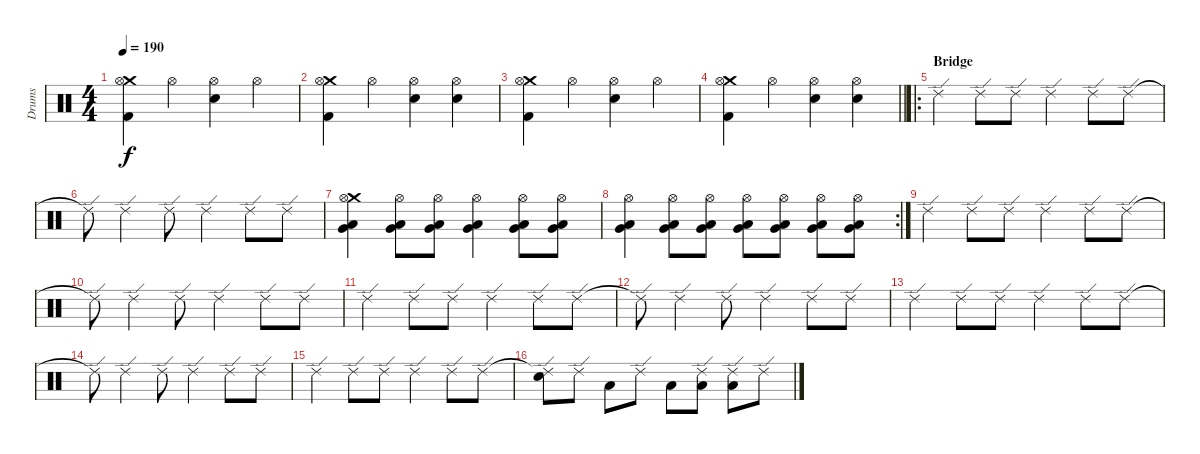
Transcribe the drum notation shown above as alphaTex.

\track ("Drums" "Drums") {instrument percussion}
\staff {score}
\articulation defaults
\ts (4 4)
\tempo 190
\clef neutral
\ks c
("Crash medium (hit)" "Hi-Hat (open)" "Kick (hit) 2").4{dy f} "Hi-Hat (open)".4 ("Hi-Hat (open)" "Electric Snare (hit)").4 "Hi-Hat (open)".4 |
("Crash medium (hit)" "Hi-Hat (open)" "Kick (hit) 2").4 "Hi-Hat (open)".4 ("Hi-Hat (open)" "Electric Snare (hit)").4 ("Hi-Hat (open)" "Electric Snare (hit)").4 |
("Crash medium (hit)" "Hi-Hat (open)" "Kick (hit) 2").4 "Hi-Hat (open)".4 ("Hi-Hat (open)" "Electric Snare (hit)").4 "Hi-Hat (open)".4 |
\barLineRight lightlight
("Crash medium (hit)" "Hi-Hat (open)" "Kick (hit) 2").4 "Hi-Hat (open)".4 ("Hi-Hat (open)" "Electric Snare (hit)").4 ("Hi-Hat (open)" "Electric Snare (hit)").4 |
\ro
\section ("" "Bridge")
"Ride (edge) 2".4 "Ride (edge) 2".8 "Ride (edge) 2".8 "Ride (edge) 2".4 "Ride (edge) 2".8 "Ride (edge) 2".8 |
"Ride (edge) 2"{t}.8 "Ride (edge) 2".4 "Ride (edge) 2".8 "Ride (edge) 2".4 "Ride (edge) 2".8 "Ride (edge) 2".8 |
("Crash medium (hit)" "Hi-Hat (open)" "Low Tom (hit)" "Very Low Tom (hit)").4 ("Hi-Hat (open)" "Low Tom (hit)" "Very Low Tom (hit)").8 ("Hi-Hat (open)" "Low Tom (hit)" "Very Low Tom (hit)").8 ("Hi-Hat (open)" "Low Tom (hit)" "Very Low Tom (hit)").4 ("Hi-Hat (open)" "Low Tom (hit)" "Very Low Tom (hit)").8 ("Hi-Hat (open)" "Low Tom (hit)" "Very Low Tom (hit)").8 |
\rc 2
("Hi-Hat (open)" "Low Tom (hit)" "Very Low Tom (hit)").4 ("Hi-Hat (open)" "Low Tom (hit)" "Very Low Tom (hit)").8 ("Hi-Hat (open)" "Low Tom (hit)" "Very Low Tom (hit)").8 ("Hi-Hat (open)" "Low Tom (hit)" "Very Low Tom (hit)").8 ("Hi-Hat (open)" "Low Tom (hit)" "Very Low Tom (hit)").8 ("Hi-Hat (open)" "Low Tom (hit)" "Very Low Tom (hit)").8 ("Hi-Hat (open)" "Low Tom (hit)" "Very Low Tom (hit)").8 |
"Ride (edge) 2".4 "Ride (edge) 2".8 "Ride (edge) 2".8 "Ride (edge) 2".4 "Ride (edge) 2".8 "Ride (edge) 2".8 |
"Ride (edge) 2"{t}.8 "Ride (edge) 2".4 "Ride (edge) 2".8 "Ride (edge) 2".4 "Ride (edge) 2".8 "Ride (edge) 2".8 |
"Ride (edge) 2".4 "Ride (edge) 2".8 "Ride (edge) 2".8 "Ride (edge) 2".4 "Ride (edge) 2".8 "Ride (edge) 2".8 |
"Ride (edge) 2"{t}.8 "Ride (edge) 2".4 "Ride (edge) 2".8 "Ride (edge) 2".4 "Ride (edge) 2".8 "Ride (edge) 2".8 |
"Ride (edge) 2".4 "Ride (edge) 2".8 "Ride (edge) 2".8 "Ride (edge) 2".4 "Ride (edge) 2".8 "Ride (edge) 2".8 |
"Ride (edge) 2"{t}.8 "Ride (edge) 2".4 "Ride (edge) 2".8 "Ride (edge) 2".4 "Ride (edge) 2".8 "Ride (edge) 2".8 |
"Ride (edge) 2".4 "Ride (edge) 2".8 "Ride (edge) 2".8 "Ride (edge) 2".4 "Ride (edge) 2".8 "Ride (edge) 2".8 |
("Ride (edge) 2"{t} "Electric Snare (hit)").8 "Ride (edge) 2".8 "Low Tom (hit)".8 "Ride (edge) 2".8 "Low Tom (hit)".8 ("Ride (edge) 2" "Low Tom (hit)").8 ("Ride (edge) 2" "Low Tom (hit)").8 "Ride (edge) 2".8
